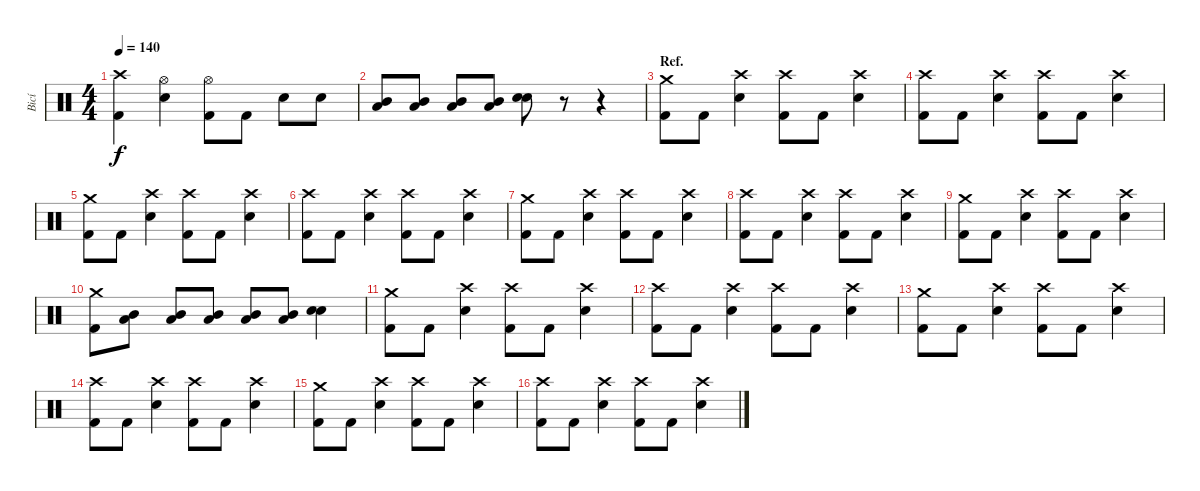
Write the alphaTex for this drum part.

\track ("Bicí" "Bicí") {instrument percussion}
\staff {score}
\articulation defaults
\ts (4 4)
\tempo 140
\clef neutral
\ks c
("Crash high (hit)" "Kick (hit) 2").4{dy f} ("Hi-Hat (open)" "Snare (hit) 2").4 ("Hi-Hat (open)" "Kick (hit) 2").8 "Kick (hit) 2".8 "Snare (hit) 2".8 "Snare (hit) 2".8 |
("Low Tom (hit)" "Mid Tom (hit)").8 ("Low Tom (hit)" "Mid Tom (hit)").8 ("Low Tom (hit)" "Mid Tom (hit)").8 ("Low Tom (hit)" "Mid Tom (hit)").8 ("Snare (hit) 2" "Snare (hit) 2").8 r.8 r.4 |
\section ("" "Ref.")
("Crash medium (hit)" "Kick (hit) 2").8 "Kick (hit) 2".8 ("Crash high (hit)" "Snare (hit) 2").4 ("Crash high (hit)" "Kick (hit) 2").8 "Kick (hit) 2".8 ("Crash high (hit)" "Snare (hit) 2").4 |
("Crash high (hit)" "Kick (hit) 2").8 "Kick (hit) 2".8 ("Crash high (hit)" "Snare (hit) 2").4 ("Crash high (hit)" "Kick (hit) 2").8 "Kick (hit) 2".8 ("Crash high (hit)" "Snare (hit) 2").4 |
("Crash medium (hit)" "Kick (hit) 2").8 "Kick (hit) 2".8 ("Crash high (hit)" "Snare (hit) 2").4 ("Crash high (hit)" "Kick (hit) 2").8 "Kick (hit) 2".8 ("Crash high (hit)" "Snare (hit) 2").4 |
("Crash high (hit)" "Kick (hit) 2").8 "Kick (hit) 2".8 ("Crash high (hit)" "Snare (hit) 2").4 ("Crash high (hit)" "Kick (hit) 2").8 "Kick (hit) 2".8 ("Crash high (hit)" "Snare (hit) 2").4 |
("Crash medium (hit)" "Kick (hit) 2").8 "Kick (hit) 2".8 ("Crash high (hit)" "Snare (hit) 2").4 ("Crash high (hit)" "Kick (hit) 2").8 "Kick (hit) 2".8 ("Crash high (hit)" "Snare (hit) 2").4 |
("Crash high (hit)" "Kick (hit) 2").8 "Kick (hit) 2".8 ("Crash high (hit)" "Snare (hit) 2").4 ("Crash high (hit)" "Kick (hit) 2").8 "Kick (hit) 2".8 ("Crash high (hit)" "Snare (hit) 2").4 |
("Crash medium (hit)" "Kick (hit) 2").8 "Kick (hit) 2".8 ("Crash high (hit)" "Snare (hit) 2").4 ("Crash high (hit)" "Kick (hit) 2").8 "Kick (hit) 2".8 ("Crash high (hit)" "Snare (hit) 2").4 |
("Crash medium (hit)" "Kick (hit) 2").8 ("Low Tom (hit)" "Mid Tom (hit)").8 ("Low Tom (hit)" "Mid Tom (hit)").8 ("Low Tom (hit)" "Mid Tom (hit)").8 ("Low Tom (hit)" "Mid Tom (hit)").8 ("Low Tom (hit)" "Mid Tom (hit)").8 ("Snare (hit) 2" "Snare (hit) 2").4 |
("Crash medium (hit)" "Kick (hit) 2").8 "Kick (hit) 2".8 ("Crash high (hit)" "Snare (hit) 2").4 ("Crash high (hit)" "Kick (hit) 2").8 "Kick (hit) 2".8 ("Crash high (hit)" "Snare (hit) 2").4 |
("Crash high (hit)" "Kick (hit) 2").8 "Kick (hit) 2".8 ("Crash high (hit)" "Snare (hit) 2").4 ("Crash high (hit)" "Kick (hit) 2").8 "Kick (hit) 2".8 ("Crash high (hit)" "Snare (hit) 2").4 |
("Crash medium (hit)" "Kick (hit) 2").8 "Kick (hit) 2".8 ("Crash high (hit)" "Snare (hit) 2").4 ("Crash high (hit)" "Kick (hit) 2").8 "Kick (hit) 2".8 ("Crash high (hit)" "Snare (hit) 2").4 |
("Crash high (hit)" "Kick (hit) 2").8 "Kick (hit) 2".8 ("Crash high (hit)" "Snare (hit) 2").4 ("Crash high (hit)" "Kick (hit) 2").8 "Kick (hit) 2".8 ("Crash high (hit)" "Snare (hit) 2").4 |
("Crash medium (hit)" "Kick (hit) 2").8 "Kick (hit) 2".8 ("Crash high (hit)" "Snare (hit) 2").4 ("Crash high (hit)" "Kick (hit) 2").8 "Kick (hit) 2".8 ("Crash high (hit)" "Snare (hit) 2").4 |
("Crash high (hit)" "Kick (hit) 2").8 "Kick (hit) 2".8 ("Crash high (hit)" "Snare (hit) 2").4 ("Crash high (hit)" "Kick (hit) 2").8 "Kick (hit) 2".8 ("Crash high (hit)" "Snare (hit) 2").4
